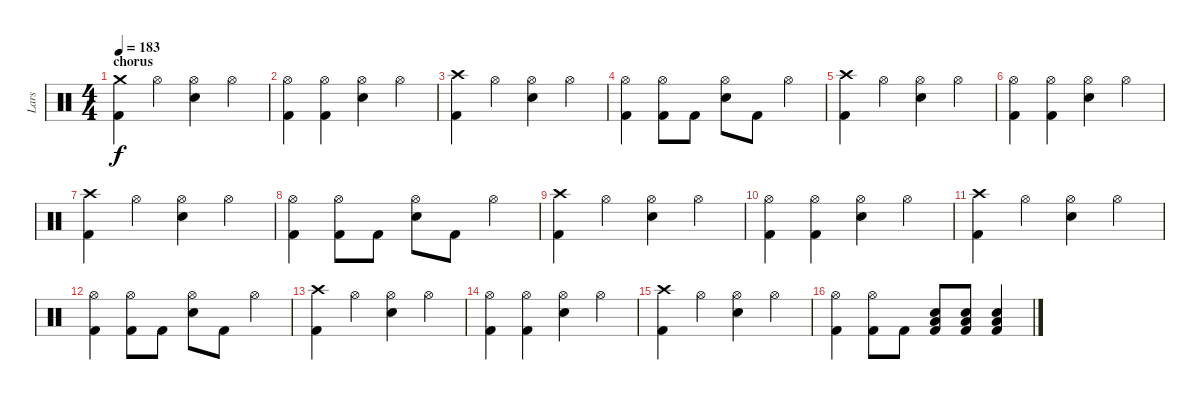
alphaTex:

\track ("Lars" "Lars") {instrument percussion}
\staff {score}
\articulation defaults
\ts (4 4)
\section ("" "chorus")
\tempo 183
\clef neutral
\ks c
("Crash medium (hit)" "Kick (hit) 2").4{dy f} "Hi-Hat (open)".4 ("Hi-Hat (open)" "Snare (hit) 2").4 "Hi-Hat (open)".4 |
("Hi-Hat (open)" "Kick (hit) 2").4 ("Hi-Hat (open)" "Kick (hit) 2").4 ("Hi-Hat (open)" "Snare (hit) 2").4 "Hi-Hat (open)".4 |
("Crash high (hit)" "Kick (hit) 2").4 "Hi-Hat (open)".4 ("Hi-Hat (open)" "Snare (hit) 2").4 "Hi-Hat (open)".4 |
("Hi-Hat (open)" "Kick (hit) 2").4 ("Hi-Hat (open)" "Kick (hit) 2").8 "Kick (hit) 2".8 ("Hi-Hat (open)" "Snare (hit) 2").8 "Kick (hit) 2".8 "Hi-Hat (open)".4 |
("Crash high (hit)" "Kick (hit) 2").4 "Hi-Hat (open)".4 ("Hi-Hat (open)" "Snare (hit) 2").4 "Hi-Hat (open)".4 |
("Hi-Hat (open)" "Kick (hit) 2").4 ("Hi-Hat (open)" "Kick (hit) 2").4 ("Hi-Hat (open)" "Snare (hit) 2").4 "Hi-Hat (open)".4 |
("Crash high (hit)" "Kick (hit) 2").4 "Hi-Hat (open)".4 ("Hi-Hat (open)" "Snare (hit) 2").4 "Hi-Hat (open)".4 |
("Hi-Hat (open)" "Kick (hit) 2").4 ("Hi-Hat (open)" "Kick (hit) 2").8 "Kick (hit) 2".8 ("Hi-Hat (open)" "Snare (hit) 2").8 "Kick (hit) 2".8 "Hi-Hat (open)".4 |
("Crash high (hit)" "Kick (hit) 2").4 "Hi-Hat (open)".4 ("Hi-Hat (open)" "Snare (hit) 2").4 "Hi-Hat (open)".4 |
("Hi-Hat (open)" "Kick (hit) 2").4 ("Hi-Hat (open)" "Kick (hit) 2").4 ("Hi-Hat (open)" "Snare (hit) 2").4 "Hi-Hat (open)".4 |
("Crash high (hit)" "Kick (hit) 2").4 "Hi-Hat (open)".4 ("Hi-Hat (open)" "Snare (hit) 2").4 "Hi-Hat (open)".4 |
("Hi-Hat (open)" "Kick (hit) 2").4 ("Hi-Hat (open)" "Kick (hit) 2").8 "Kick (hit) 2".8 ("Hi-Hat (open)" "Snare (hit) 2").8 "Kick (hit) 2".8 "Hi-Hat (open)".4 |
("Crash high (hit)" "Kick (hit) 2").4 "Hi-Hat (open)".4 ("Hi-Hat (open)" "Snare (hit) 2").4 "Hi-Hat (open)".4 |
("Hi-Hat (open)" "Kick (hit) 2").4 ("Hi-Hat (open)" "Kick (hit) 2").4 ("Hi-Hat (open)" "Snare (hit) 2").4 "Hi-Hat (open)".4 |
("Crash high (hit)" "Kick (hit) 2").4 "Hi-Hat (open)".4 ("Hi-Hat (open)" "Snare (hit) 2").4 "Hi-Hat (open)".4 |
("Hi-Hat (open)" "Kick (hit) 2").4 ("Hi-Hat (open)" "Kick (hit) 2").8 "Kick (hit) 2".8 ("Snare (hit) 2" "Low Floor Tom (hit)" "Kick (hit) 2").8 ("Snare (hit) 2" "Low Floor Tom (hit)" "Kick (hit) 2").8 ("Snare (hit) 2" "Low Floor Tom (hit)" "Kick (hit) 2").4
